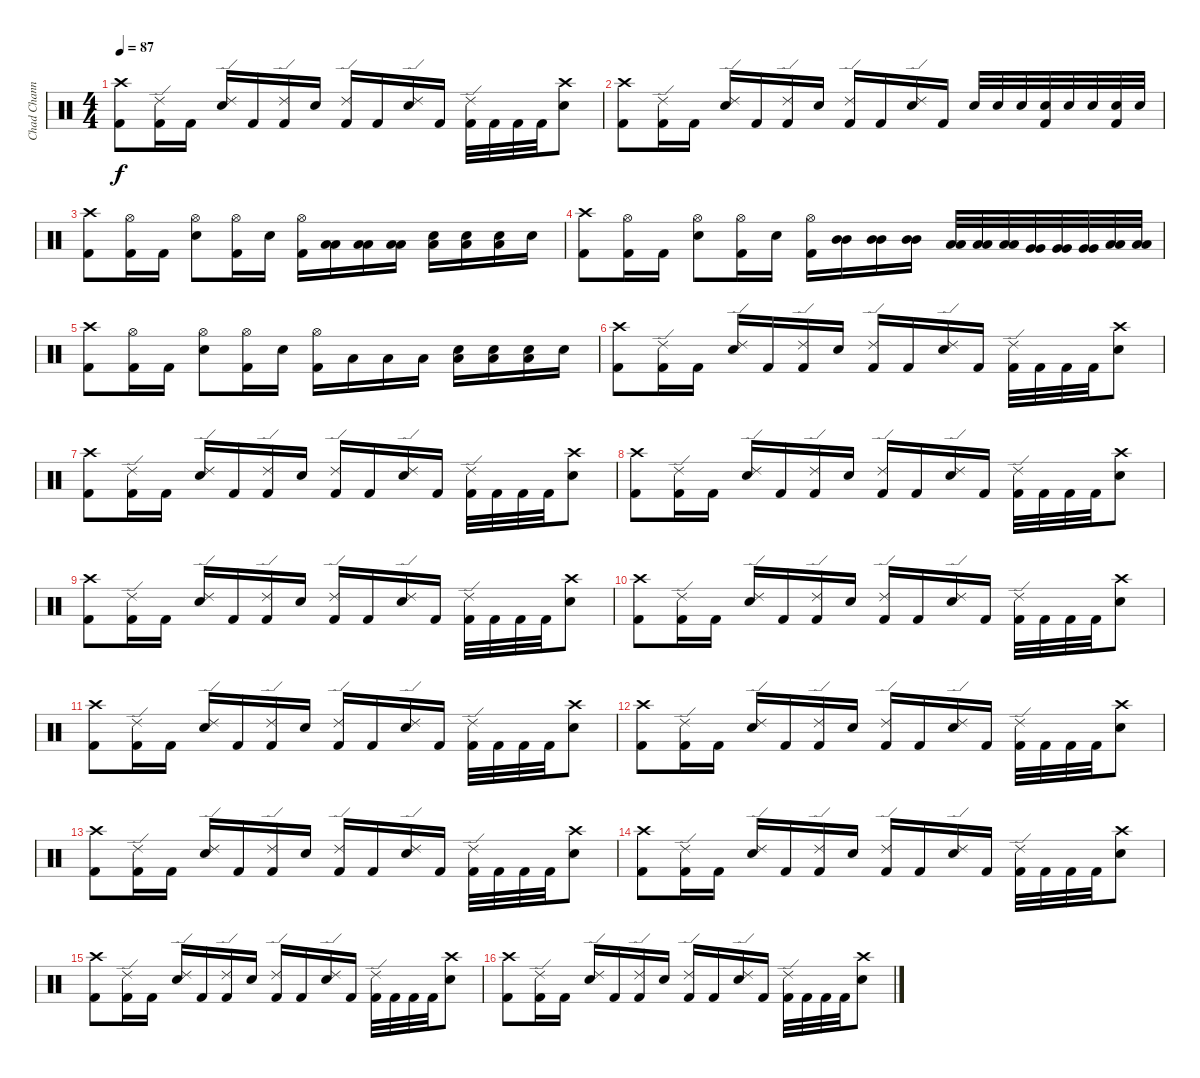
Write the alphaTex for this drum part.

\track ("Chad Channing" "Chad Chann") {instrument percussion}
\staff {score}
\articulation defaults
\ts (4 4)
\tempo 87
\clef neutral
\ks c
("Crash high (hit)" "Kick (hit) 2").8{dy f} ("Ride (edge) 2" "Kick (hit) 2").16 "Kick (hit) 2".16 ("Ride (edge) 2" "Snare (hit) 2").16 "Kick (hit) 2".16 ("Ride (edge) 2" "Kick (hit) 2").16 "Snare (hit) 2".16 ("Ride (edge) 2" "Kick (hit) 2").16 "Kick (hit) 2".16 ("Ride (edge) 2" "Snare (hit) 2").16 "Kick (hit) 2".16 ("Ride (edge) 2" "Kick (hit) 2").32 "Kick (hit) 2".32 "Kick (hit) 2".32 "Kick (hit) 2".32 ("Crash high (hit)" "Snare (hit) 2").8 |
("Crash high (hit)" "Kick (hit) 2").8 ("Ride (edge) 2" "Kick (hit) 2").16 "Kick (hit) 2".16 ("Ride (edge) 2" "Snare (hit) 2").16 "Kick (hit) 2".16 ("Ride (edge) 2" "Kick (hit) 2").16 "Snare (hit) 2".16 ("Ride (edge) 2" "Kick (hit) 2").16 "Kick (hit) 2".16 ("Ride (edge) 2" "Snare (hit) 2").16 "Kick (hit) 2".16 "Snare (hit) 2".32 "Snare (hit) 2".32 "Snare (hit) 2".32 ("Snare (hit) 2" "Kick (hit) 2").32 "Snare (hit) 2".32 "Snare (hit) 2".32 ("Snare (hit) 2" "Kick (hit) 2").32 "Snare (hit) 2".32 |
("Crash high (hit)" "Kick (hit) 2").8 ("Hi-Hat (open)" "Kick (hit) 2").16 "Kick (hit) 2".16 ("Hi-Hat (open)" "Snare (hit) 2").8 ("Hi-Hat (open)" "Kick (hit) 2").16 "Snare (hit) 2".16 ("Hi-Hat (open)" "Kick (hit) 2").16 ("Low Tom (hit)" "Low Tom (hit)").16 ("Low Tom (hit)" "Low Tom (hit)").16 ("Low Tom (hit)" "Low Tom (hit)").16 ("Snare (hit) 2" "Low Tom (hit)").16 ("Snare (hit) 2" "Low Tom (hit)").16 ("Snare (hit) 2" "Low Tom (hit)").16 "Snare (hit) 2".16 |
("Crash high (hit)" "Kick (hit) 2").8 ("Hi-Hat (open)" "Kick (hit) 2").16 "Kick (hit) 2".16 ("Hi-Hat (open)" "Snare (hit) 2").8 ("Hi-Hat (open)" "Kick (hit) 2").16 "Snare (hit) 2".16 ("Hi-Hat (open)" "Kick (hit) 2").16 ("Mid Tom (hit)" "Mid Tom (hit)").16 ("Mid Tom (hit)" "Mid Tom (hit)").16 ("Mid Tom (hit)" "Mid Tom (hit)").16 ("Low Tom (hit)" "Low Tom (hit)").32 ("Low Tom (hit)" "Low Tom (hit)").32 ("Low Tom (hit)" "Low Tom (hit)").32 ("Very Low Tom (hit)" "Very Low Tom (hit)").32 ("Very Low Tom (hit)" "Very Low Tom (hit)").32 ("Very Low Tom (hit)" "Very Low Tom (hit)").32 ("Low Floor Tom (hit)" "Low Floor Tom (hit)").32 ("Low Floor Tom (hit)" "Low Floor Tom (hit)").32 |
("Crash high (hit)" "Kick (hit) 2").8 ("Hi-Hat (open)" "Kick (hit) 2").16 "Kick (hit) 2".16 ("Hi-Hat (open)" "Snare (hit) 2").8 ("Hi-Hat (open)" "Kick (hit) 2").16 "Snare (hit) 2".16 ("Hi-Hat (open)" "Kick (hit) 2").16 "Low Tom (hit)".16 "Low Tom (hit)".16 "Low Tom (hit)".16 ("Snare (hit) 2" "Low Tom (hit)").16 ("Snare (hit) 2" "Low Tom (hit)").16 ("Snare (hit) 2" "Low Tom (hit)").16 "Snare (hit) 2".16 |
("Crash high (hit)" "Kick (hit) 2").8 ("Ride (edge) 2" "Kick (hit) 2").16 "Kick (hit) 2".16 ("Ride (edge) 2" "Snare (hit) 2").16 "Kick (hit) 2".16 ("Ride (edge) 2" "Kick (hit) 2").16 "Snare (hit) 2".16 ("Ride (edge) 2" "Kick (hit) 2").16 "Kick (hit) 2".16 ("Ride (edge) 2" "Snare (hit) 2").16 "Kick (hit) 2".16 ("Ride (edge) 2" "Kick (hit) 2").32 "Kick (hit) 2".32 "Kick (hit) 2".32 "Kick (hit) 2".32 ("Crash high (hit)" "Snare (hit) 2").8 |
("Crash high (hit)" "Kick (hit) 2").8 ("Ride (edge) 2" "Kick (hit) 2").16 "Kick (hit) 2".16 ("Ride (edge) 2" "Snare (hit) 2").16 "Kick (hit) 2".16 ("Ride (edge) 2" "Kick (hit) 2").16 "Snare (hit) 2".16 ("Ride (edge) 2" "Kick (hit) 2").16 "Kick (hit) 2".16 ("Ride (edge) 2" "Snare (hit) 2").16 "Kick (hit) 2".16 ("Ride (edge) 2" "Kick (hit) 2").32 "Kick (hit) 2".32 "Kick (hit) 2".32 "Kick (hit) 2".32 ("Crash high (hit)" "Snare (hit) 2").8 |
("Crash high (hit)" "Kick (hit) 2").8 ("Ride (edge) 2" "Kick (hit) 2").16 "Kick (hit) 2".16 ("Ride (edge) 2" "Snare (hit) 2").16 "Kick (hit) 2".16 ("Ride (edge) 2" "Kick (hit) 2").16 "Snare (hit) 2".16 ("Ride (edge) 2" "Kick (hit) 2").16 "Kick (hit) 2".16 ("Ride (edge) 2" "Snare (hit) 2").16 "Kick (hit) 2".16 ("Ride (edge) 2" "Kick (hit) 2").32 "Kick (hit) 2".32 "Kick (hit) 2".32 "Kick (hit) 2".32 ("Crash high (hit)" "Snare (hit) 2").8 |
("Crash high (hit)" "Kick (hit) 2").8 ("Ride (edge) 2" "Kick (hit) 2").16 "Kick (hit) 2".16 ("Ride (edge) 2" "Snare (hit) 2").16 "Kick (hit) 2".16 ("Ride (edge) 2" "Kick (hit) 2").16 "Snare (hit) 2".16 ("Ride (edge) 2" "Kick (hit) 2").16 "Kick (hit) 2".16 ("Ride (edge) 2" "Snare (hit) 2").16 "Kick (hit) 2".16 ("Ride (edge) 2" "Kick (hit) 2").32 "Kick (hit) 2".32 "Kick (hit) 2".32 "Kick (hit) 2".32 ("Crash high (hit)" "Snare (hit) 2").8 |
("Crash high (hit)" "Kick (hit) 2").8 ("Ride (edge) 2" "Kick (hit) 2").16 "Kick (hit) 2".16 ("Ride (edge) 2" "Snare (hit) 2").16 "Kick (hit) 2".16 ("Ride (edge) 2" "Kick (hit) 2").16 "Snare (hit) 2".16 ("Ride (edge) 2" "Kick (hit) 2").16 "Kick (hit) 2".16 ("Ride (edge) 2" "Snare (hit) 2").16 "Kick (hit) 2".16 ("Ride (edge) 2" "Kick (hit) 2").32 "Kick (hit) 2".32 "Kick (hit) 2".32 "Kick (hit) 2".32 ("Crash high (hit)" "Snare (hit) 2").8 |
("Crash high (hit)" "Kick (hit) 2").8 ("Ride (edge) 2" "Kick (hit) 2").16 "Kick (hit) 2".16 ("Ride (edge) 2" "Snare (hit) 2").16 "Kick (hit) 2".16 ("Ride (edge) 2" "Kick (hit) 2").16 "Snare (hit) 2".16 ("Ride (edge) 2" "Kick (hit) 2").16 "Kick (hit) 2".16 ("Ride (edge) 2" "Snare (hit) 2").16 "Kick (hit) 2".16 ("Ride (edge) 2" "Kick (hit) 2").32 "Kick (hit) 2".32 "Kick (hit) 2".32 "Kick (hit) 2".32 ("Crash high (hit)" "Snare (hit) 2").8 |
("Crash high (hit)" "Kick (hit) 2").8 ("Ride (edge) 2" "Kick (hit) 2").16 "Kick (hit) 2".16 ("Ride (edge) 2" "Snare (hit) 2").16 "Kick (hit) 2".16 ("Ride (edge) 2" "Kick (hit) 2").16 "Snare (hit) 2".16 ("Ride (edge) 2" "Kick (hit) 2").16 "Kick (hit) 2".16 ("Ride (edge) 2" "Snare (hit) 2").16 "Kick (hit) 2".16 ("Ride (edge) 2" "Kick (hit) 2").32 "Kick (hit) 2".32 "Kick (hit) 2".32 "Kick (hit) 2".32 ("Crash high (hit)" "Snare (hit) 2").8 |
("Crash high (hit)" "Kick (hit) 2").8 ("Ride (edge) 2" "Kick (hit) 2").16 "Kick (hit) 2".16 ("Ride (edge) 2" "Snare (hit) 2").16 "Kick (hit) 2".16 ("Ride (edge) 2" "Kick (hit) 2").16 "Snare (hit) 2".16 ("Ride (edge) 2" "Kick (hit) 2").16 "Kick (hit) 2".16 ("Ride (edge) 2" "Snare (hit) 2").16 "Kick (hit) 2".16 ("Ride (edge) 2" "Kick (hit) 2").32 "Kick (hit) 2".32 "Kick (hit) 2".32 "Kick (hit) 2".32 ("Crash high (hit)" "Snare (hit) 2").8 |
("Crash high (hit)" "Kick (hit) 2").8 ("Ride (edge) 2" "Kick (hit) 2").16 "Kick (hit) 2".16 ("Ride (edge) 2" "Snare (hit) 2").16 "Kick (hit) 2".16 ("Ride (edge) 2" "Kick (hit) 2").16 "Snare (hit) 2".16 ("Ride (edge) 2" "Kick (hit) 2").16 "Kick (hit) 2".16 ("Ride (edge) 2" "Snare (hit) 2").16 "Kick (hit) 2".16 ("Ride (edge) 2" "Kick (hit) 2").32 "Kick (hit) 2".32 "Kick (hit) 2".32 "Kick (hit) 2".32 ("Crash high (hit)" "Snare (hit) 2").8 |
("Crash high (hit)" "Kick (hit) 2").8 ("Ride (edge) 2" "Kick (hit) 2").16 "Kick (hit) 2".16 ("Ride (edge) 2" "Snare (hit) 2").16 "Kick (hit) 2".16 ("Ride (edge) 2" "Kick (hit) 2").16 "Snare (hit) 2".16 ("Ride (edge) 2" "Kick (hit) 2").16 "Kick (hit) 2".16 ("Ride (edge) 2" "Snare (hit) 2").16 "Kick (hit) 2".16 ("Ride (edge) 2" "Kick (hit) 2").32 "Kick (hit) 2".32 "Kick (hit) 2".32 "Kick (hit) 2".32 ("Crash high (hit)" "Snare (hit) 2").8 |
("Crash high (hit)" "Kick (hit) 2").8 ("Ride (edge) 2" "Kick (hit) 2").16 "Kick (hit) 2".16 ("Ride (edge) 2" "Snare (hit) 2").16 "Kick (hit) 2".16 ("Ride (edge) 2" "Kick (hit) 2").16 "Snare (hit) 2".16 ("Ride (edge) 2" "Kick (hit) 2").16 "Kick (hit) 2".16 ("Ride (edge) 2" "Snare (hit) 2").16 "Kick (hit) 2".16 ("Ride (edge) 2" "Kick (hit) 2").32 "Kick (hit) 2".32 "Kick (hit) 2".32 "Kick (hit) 2".32 ("Crash high (hit)" "Snare (hit) 2").8
